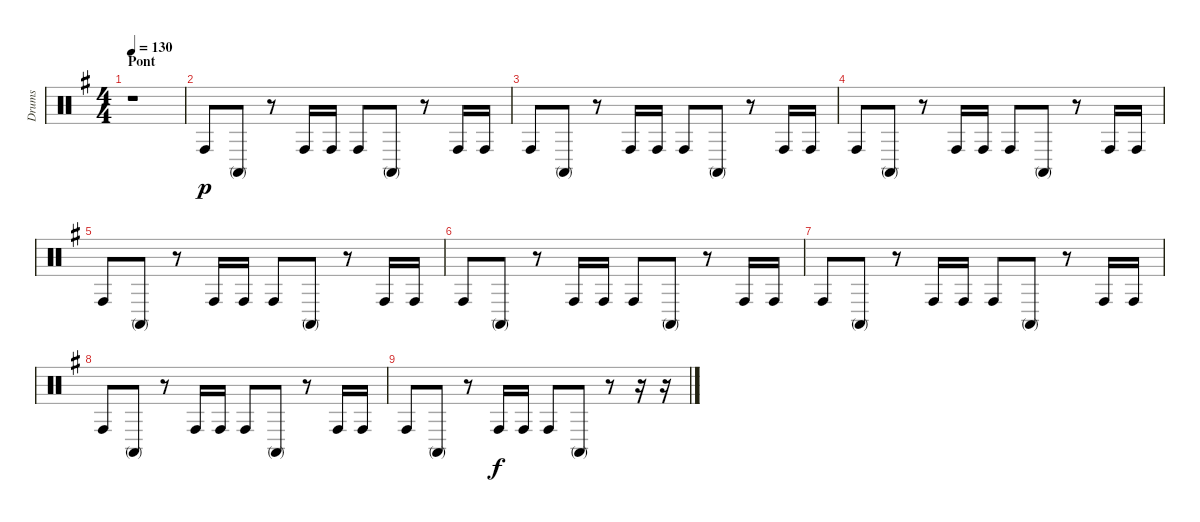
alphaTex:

\track ("Drums" "Drums") {instrument percussion}
\staff {score}
\articulation defaults
\ts (4 4)
\section ("" "Pont")
\tempo 130
\clef neutral
\ks g
r.1{dy f} |
"Conga high (hit)".8{dy p} "Conga high (mute)".8 r.8 "Conga high (hit)".16 "Conga high (hit)".16 "Conga high (hit)".8 "Conga high (mute)".8 r.8 "Conga high (hit)".16 "Conga high (hit)".16 |
"Conga high (hit)".8 "Conga high (mute)".8 r.8 "Conga high (hit)".16 "Conga high (hit)".16 "Conga high (hit)".8 "Conga high (mute)".8 r.8 "Conga high (hit)".16 "Conga high (hit)".16 |
"Conga high (hit)".8 "Conga high (mute)".8 r.8 "Conga high (hit)".16 "Conga high (hit)".16 "Conga high (hit)".8 "Conga high (mute)".8 r.8 "Conga high (hit)".16 "Conga high (hit)".16 |
"Conga high (hit)".8 "Conga high (mute)".8 r.8 "Conga high (hit)".16 "Conga high (hit)".16 "Conga high (hit)".8 "Conga high (mute)".8 r.8 "Conga high (hit)".16 "Conga high (hit)".16 |
"Conga high (hit)".8 "Conga high (mute)".8 r.8 "Conga high (hit)".16 "Conga high (hit)".16 "Conga high (hit)".8 "Conga high (mute)".8 r.8 "Conga high (hit)".16 "Conga high (hit)".16 |
"Conga high (hit)".8 "Conga high (mute)".8 r.8 "Conga high (hit)".16 "Conga high (hit)".16 "Conga high (hit)".8 "Conga high (mute)".8 r.8 "Conga high (hit)".16 "Conga high (hit)".16 |
"Conga high (hit)".8 "Conga high (mute)".8 r.8 "Conga high (hit)".16 "Conga high (hit)".16 "Conga high (hit)".8 "Conga high (mute)".8 r.8 "Conga high (hit)".16 "Conga high (hit)".16 |
"Conga high (hit)".8 "Conga high (mute)".8 r.8 "Conga high (hit)".16{dy f} "Conga high (hit)".16 "Conga high (hit)".8 "Conga high (mute)".8 r.8 r.16 r.16
